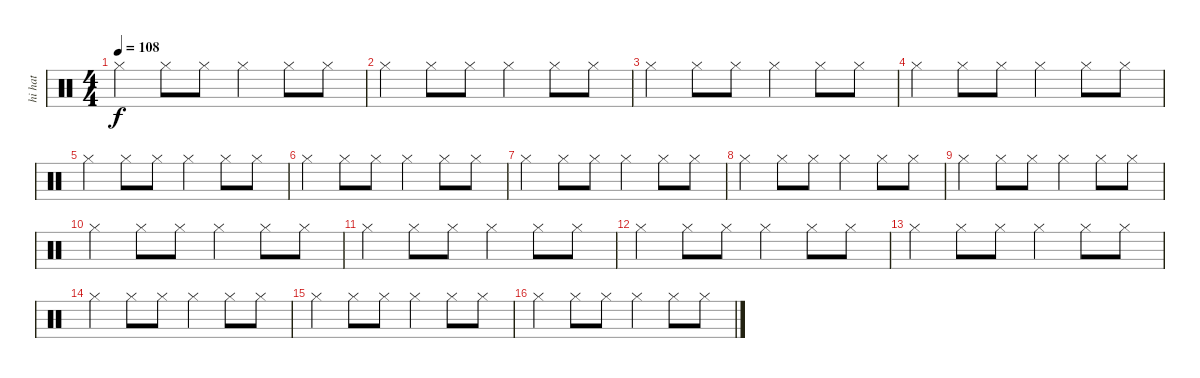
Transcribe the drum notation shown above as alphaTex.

\track ("hi hat              " "hi hat    ") {instrument percussion}
\staff {score}
\articulation defaults
\ts (4 4)
\tempo 108
\clef neutral
\ks c "Hi-Hat (closed)".4{dy f volume 15} "Hi-Hat (closed)".8{volume 15} "Hi-Hat (closed)".8{volume 14} "Hi-Hat (closed)".4{volume 14} "Hi-Hat (closed)".8{volume 14} "Hi-Hat (closed)".8{volume 14}
|
"Hi-Hat (closed)".4 "Hi-Hat (closed)".8{volume 14} "Hi-Hat (closed)".8{volume 14} "Hi-Hat (closed)".4{volume 14} "Hi-Hat (closed)".8{volume 13} "Hi-Hat (closed)".8{volume 13} |
"Hi-Hat (closed)".4{volume 13} "Hi-Hat (closed)".8{volume 13} "Hi-Hat (closed)".8{volume 13} "Hi-Hat (closed)".4{volume 12} "Hi-Hat (closed)".8{volume 12} "Hi-Hat (closed)".8 |
"Hi-Hat (closed)".4{volume 12} "Hi-Hat (closed)".8{volume 12} "Hi-Hat (closed)".8{volume 12} "Hi-Hat (closed)".4{volume 12} "Hi-Hat (closed)".8{volume 11} "Hi-Hat (closed)".8{volume 11} |
"Hi-Hat (closed)".4{volume 11} "Hi-Hat (closed)".8{volume 11} "Hi-Hat (closed)".8{volume 11} "Hi-Hat (closed)".4{volume 11} "Hi-Hat (closed)".8{volume 10} "Hi-Hat (closed)".8{volume 10} |
"Hi-Hat (closed)".4{volume 10} "Hi-Hat (closed)".8{volume 10} "Hi-Hat (closed)".8{volume 10} "Hi-Hat (closed)".4{volume 10} "Hi-Hat (closed)".8{volume 10} "Hi-Hat (closed)".8{volume 9} |
"Hi-Hat (closed)".4{volume 9} "Hi-Hat (closed)".8{volume 9} "Hi-Hat (closed)".8{volume 9} "Hi-Hat (closed)".4{volume 9} "Hi-Hat (closed)".8{volume 9} "Hi-Hat (closed)".8{volume 8} |
"Hi-Hat (closed)".4{volume 8} "Hi-Hat (closed)".8{volume 8} "Hi-Hat (closed)".8{volume 8} "Hi-Hat (closed)".4{volume 8} "Hi-Hat (closed)".8{volume 8} "Hi-Hat (closed)".8{volume 8} |
"Hi-Hat (closed)".4{volume 7} "Hi-Hat (closed)".8{volume 7} "Hi-Hat (closed)".8{volume 7} "Hi-Hat (closed)".4 "Hi-Hat (closed)".8{volume 7} "Hi-Hat (closed)".8{volume 7} |
"Hi-Hat (closed)".4{volume 6} "Hi-Hat (closed)".8{volume 6} "Hi-Hat (closed)".8{volume 6} "Hi-Hat (closed)".4{volume 6} "Hi-Hat (closed)".8{volume 6} "Hi-Hat (closed)".8{volume 6} |
"Hi-Hat (closed)".4{volume 6} "Hi-Hat (closed)".8{volume 5} "Hi-Hat (closed)".8 "Hi-Hat (closed)".4{volume 5} "Hi-Hat (closed)".8{volume 5} "Hi-Hat (closed)".8{volume 5} |
"Hi-Hat (closed)".4{volume 5} "Hi-Hat (closed)".8{volume 4} "Hi-Hat (closed)".8{volume 4} "Hi-Hat (closed)".4{volume 4} "Hi-Hat (closed)".8{volume 4} "Hi-Hat (closed)".8{volume 4} |
"Hi-Hat (closed)".4{volume 4} "Hi-Hat (closed)".8{volume 4} "Hi-Hat (closed)".8{volume 3} "Hi-Hat (closed)".4{volume 3} "Hi-Hat (closed)".8{volume 3} "Hi-Hat (closed)".8{volume 3} |
"Hi-Hat (closed)".4{volume 3} "Hi-Hat (closed)".8{volume 2} "Hi-Hat (closed)".8{volume 2} "Hi-Hat (closed)".4{volume 2} "Hi-Hat (closed)".8{volume 2} "Hi-Hat (closed)".8{volume 2} |
"Hi-Hat (closed)".4{volume 2} "Hi-Hat (closed)".8{volume 2} "Hi-Hat (closed)".8{volume 2} "Hi-Hat (closed)".4{volume 1} "Hi-Hat (closed)".8{volume 1} "Hi-Hat (closed)".8{volume 1} |
"Hi-Hat (closed)".4{volume 1} "Hi-Hat (closed)".8{volume 1} "Hi-Hat (closed)".8{volume 0} "Hi-Hat (closed)".4{volume 0} "Hi-Hat (closed)".8{volume 0} "Hi-Hat (closed)".8{volume 0}
